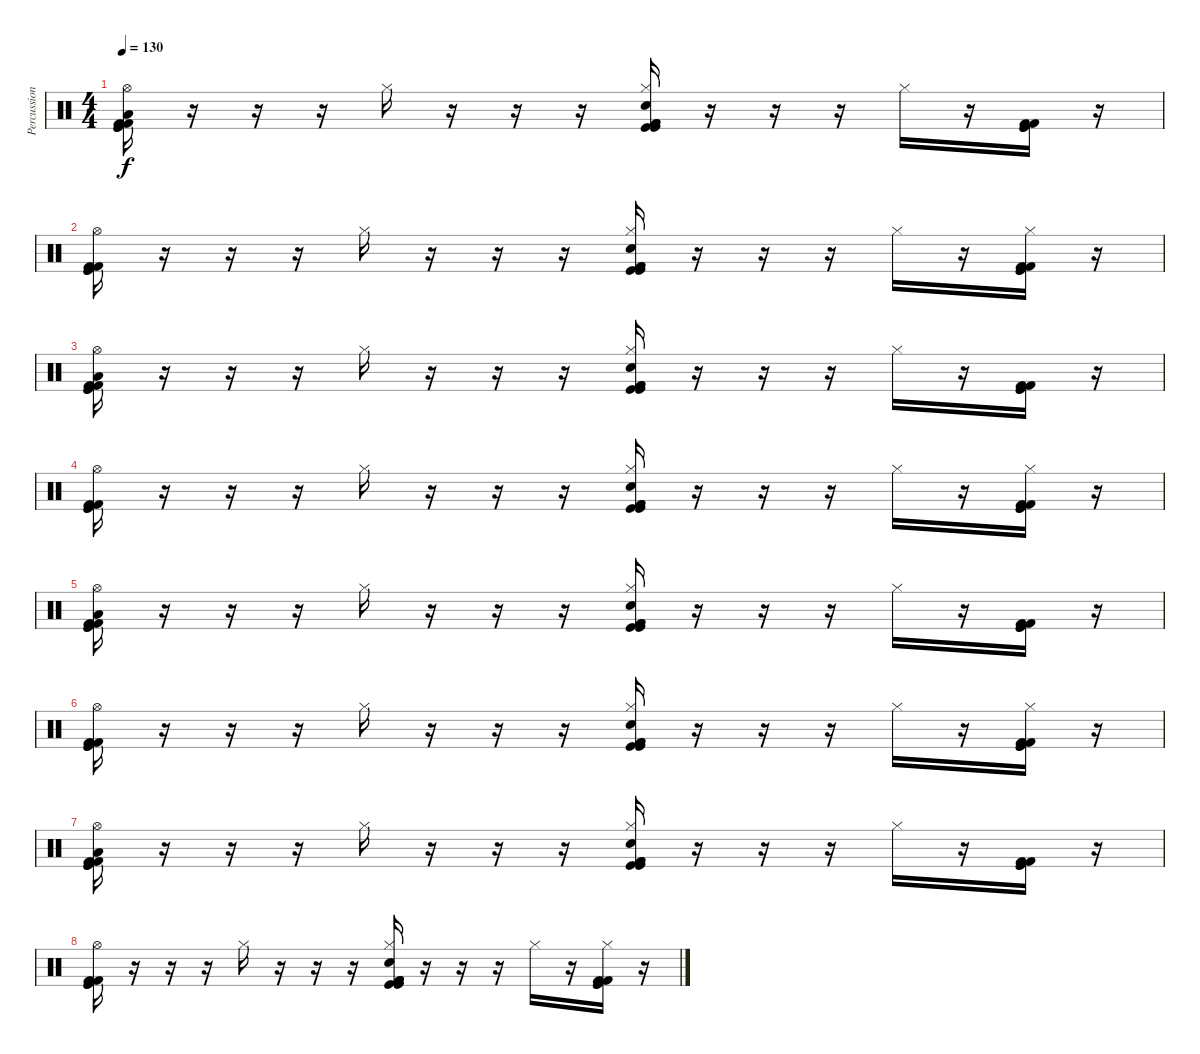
\track ("Percussion" "Percussion") {instrument percussion}
\staff {score}
\articulation defaults
\ts (4 4)
\tempo 130
\clef neutral
\ks c
("Hi-Hat (open)" "Kick (hit) 2" "Kick (hit) 2" "Kick (hit)" "Kick (hit)" "Low Tom (hit)").16{dy f} r.16 r.16 r.16 "Hi-Hat (closed)".16 r.16 r.16 r.16 ("Hi-Hat (closed)" "Kick (hit) 2" "Kick (hit) 2" "Kick (hit)" "Kick (hit)" "Electric Snare (hit)").16 r.16 r.16 r.16 "Hi-Hat (closed)".16 r.16 ("Kick (hit) 2" "Kick (hit) 2" "Kick (hit)" "Kick (hit)").16 r.16 |
("Hi-Hat (open)" "Kick (hit) 2" "Kick (hit) 2" "Kick (hit)" "Kick (hit)").16 r.16 r.16 r.16 "Hi-Hat (closed)".16 r.16 r.16 r.16 ("Hi-Hat (closed)" "Kick (hit) 2" "Kick (hit) 2" "Kick (hit)" "Kick (hit)" "Electric Snare (hit)").16 r.16 r.16 r.16 "Hi-Hat (closed)".16 r.16 ("Hi-Hat (closed)" "Kick (hit) 2" "Kick (hit) 2" "Kick (hit)" "Kick (hit)").16 r.16 |
("Hi-Hat (open)" "Kick (hit) 2" "Kick (hit) 2" "Kick (hit)" "Kick (hit)" "Low Tom (hit)").16 r.16 r.16 r.16 "Hi-Hat (closed)".16 r.16 r.16 r.16 ("Hi-Hat (closed)" "Kick (hit) 2" "Kick (hit) 2" "Kick (hit)" "Kick (hit)" "Electric Snare (hit)").16 r.16 r.16 r.16 "Hi-Hat (closed)".16 r.16 ("Kick (hit) 2" "Kick (hit) 2" "Kick (hit)" "Kick (hit)").16 r.16 |
("Hi-Hat (open)" "Kick (hit) 2" "Kick (hit) 2" "Kick (hit)" "Kick (hit)").16 r.16 r.16 r.16 "Hi-Hat (closed)".16 r.16 r.16 r.16 ("Hi-Hat (closed)" "Kick (hit) 2" "Kick (hit) 2" "Kick (hit)" "Kick (hit)" "Electric Snare (hit)").16 r.16 r.16 r.16 "Hi-Hat (closed)".16 r.16 ("Hi-Hat (closed)" "Kick (hit) 2" "Kick (hit) 2" "Kick (hit)" "Kick (hit)").16 r.16 |
("Hi-Hat (open)" "Kick (hit) 2" "Kick (hit) 2" "Kick (hit)" "Kick (hit)" "Low Tom (hit)").16 r.16 r.16 r.16 "Hi-Hat (closed)".16 r.16 r.16 r.16 ("Hi-Hat (closed)" "Kick (hit) 2" "Kick (hit) 2" "Kick (hit)" "Kick (hit)" "Electric Snare (hit)").16 r.16 r.16 r.16 "Hi-Hat (closed)".16 r.16 ("Kick (hit) 2" "Kick (hit) 2" "Kick (hit)" "Kick (hit)").16 r.16 |
("Hi-Hat (open)" "Kick (hit) 2" "Kick (hit) 2" "Kick (hit)" "Kick (hit)").16 r.16 r.16 r.16 "Hi-Hat (closed)".16 r.16 r.16 r.16 ("Hi-Hat (closed)" "Kick (hit) 2" "Kick (hit) 2" "Kick (hit)" "Kick (hit)" "Electric Snare (hit)").16 r.16 r.16 r.16 "Hi-Hat (closed)".16 r.16 ("Hi-Hat (closed)" "Kick (hit) 2" "Kick (hit) 2" "Kick (hit)" "Kick (hit)").16 r.16 |
("Hi-Hat (open)" "Kick (hit) 2" "Kick (hit) 2" "Kick (hit)" "Kick (hit)" "Low Tom (hit)").16 r.16 r.16 r.16 "Hi-Hat (closed)".16 r.16 r.16 r.16 ("Hi-Hat (closed)" "Kick (hit) 2" "Kick (hit) 2" "Kick (hit)" "Kick (hit)" "Electric Snare (hit)").16 r.16 r.16 r.16 "Hi-Hat (closed)".16 r.16 ("Kick (hit) 2" "Kick (hit) 2" "Kick (hit)" "Kick (hit)").16 r.16 |
("Hi-Hat (open)" "Kick (hit) 2" "Kick (hit) 2" "Kick (hit)" "Kick (hit)").16 r.16 r.16 r.16 "Hi-Hat (closed)".16 r.16 r.16 r.16 ("Hi-Hat (closed)" "Kick (hit) 2" "Kick (hit) 2" "Kick (hit)" "Kick (hit)" "Electric Snare (hit)").16 r.16 r.16 r.16 "Hi-Hat (closed)".16 r.16 ("Hi-Hat (closed)" "Kick (hit) 2" "Kick (hit) 2" "Kick (hit)" "Kick (hit)").16 r.16
